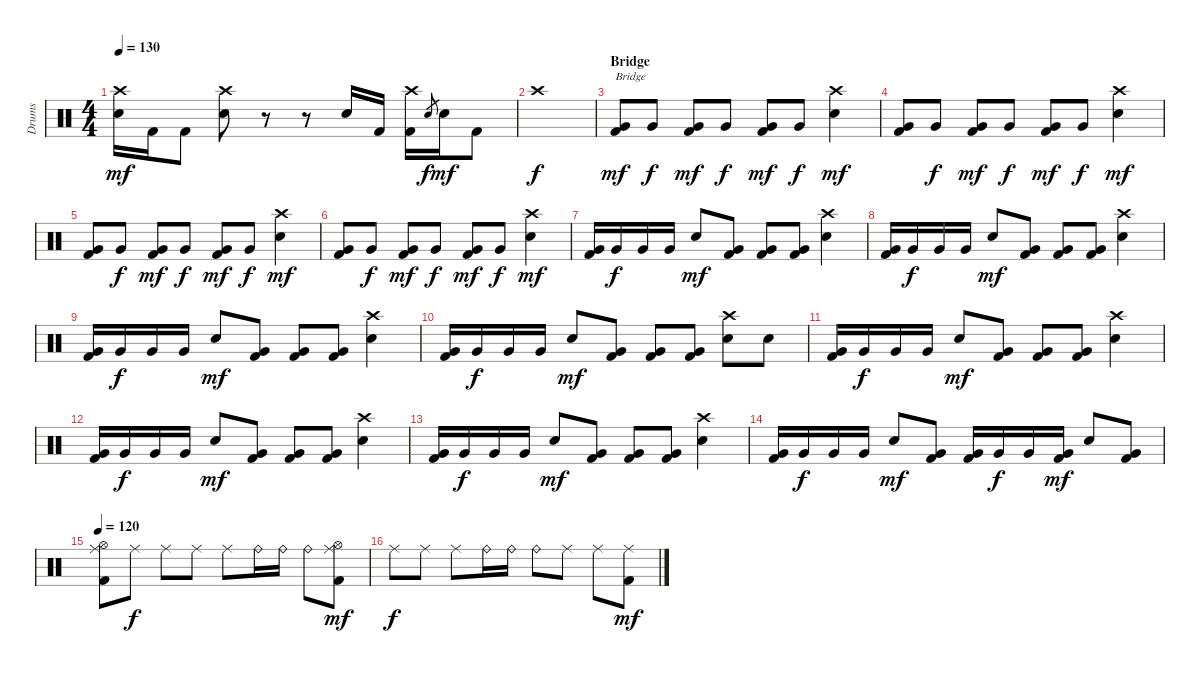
\track ("Drums" "Drums") {instrument percussion}
\staff {score}
\articulation defaults
\ts (4 4)
\tempo 130
\clef neutral
\ks c
("Crash high (hit)" "Electric Snare (hit)").16{dy mf} "Kick (hit) 2".16 "Kick (hit) 2".8 ("Crash high (hit)" "Electric Snare (hit)").8 r.8 r.8 "Electric Snare (hit)".16 "Kick (hit) 2".16 ("Crash high (hit)" "Kick (hit) 2").16 "Electric Snare (hit)".8{gr dy f} "Electric Snare (hit)".16{dy mf} "Kick (hit) 2".8 |
"Crash high (hit)".1{dy f} |
\section ("" "Bridge")
("Very Low Tom (hit)" "Kick (hit) 2").8{txt "Bridge" dy mf} "Very Low Tom (hit)".8{dy f} ("Very Low Tom (hit)" "Kick (hit) 2").8{dy mf} "Very Low Tom (hit)".8{dy f} ("Very Low Tom (hit)" "Kick (hit) 2").8{dy mf} "Very Low Tom (hit)".8{dy f} ("Crash high (hit)" "Electric Snare (hit)").4{dy mf} |
("Very Low Tom (hit)" "Kick (hit) 2").8 "Very Low Tom (hit)".8{dy f} ("Very Low Tom (hit)" "Kick (hit) 2").8{dy mf} "Very Low Tom (hit)".8{dy f} ("Very Low Tom (hit)" "Kick (hit) 2").8{dy mf} "Very Low Tom (hit)".8{dy f} ("Crash high (hit)" "Electric Snare (hit)").4{dy mf} |
("Very Low Tom (hit)" "Kick (hit) 2").8 "Very Low Tom (hit)".8{dy f} ("Very Low Tom (hit)" "Kick (hit) 2").8{dy mf} "Very Low Tom (hit)".8{dy f} ("Very Low Tom (hit)" "Kick (hit) 2").8{dy mf} "Very Low Tom (hit)".8{dy f} ("Crash high (hit)" "Electric Snare (hit)").4{dy mf} |
("Very Low Tom (hit)" "Kick (hit) 2").8 "Very Low Tom (hit)".8{dy f} ("Very Low Tom (hit)" "Kick (hit) 2").8{dy mf} "Very Low Tom (hit)".8{dy f} ("Very Low Tom (hit)" "Kick (hit) 2").8{dy mf} "Very Low Tom (hit)".8{dy f} ("Crash high (hit)" "Electric Snare (hit)").4{dy mf} |
("Very Low Tom (hit)" "Kick (hit) 2").16 "Very Low Tom (hit)".16{dy f} "Very Low Tom (hit)".16 "Very Low Tom (hit)".16 "Electric Snare (hit)".8{dy mf} ("Very Low Tom (hit)" "Kick (hit) 2").8 ("Very Low Tom (hit)" "Kick (hit) 2").8 ("Very Low Tom (hit)" "Kick (hit) 2").8 ("Crash high (hit)" "Electric Snare (hit)").4 |
("Very Low Tom (hit)" "Kick (hit) 2").16 "Very Low Tom (hit)".16{dy f} "Very Low Tom (hit)".16 "Very Low Tom (hit)".16 "Electric Snare (hit)".8{dy mf} ("Very Low Tom (hit)" "Kick (hit) 2").8 ("Very Low Tom (hit)" "Kick (hit) 2").8 ("Very Low Tom (hit)" "Kick (hit) 2").8 ("Crash high (hit)" "Electric Snare (hit)").4 |
("Very Low Tom (hit)" "Kick (hit) 2").16 "Very Low Tom (hit)".16{dy f} "Very Low Tom (hit)".16 "Very Low Tom (hit)".16 "Electric Snare (hit)".8{dy mf} ("Very Low Tom (hit)" "Kick (hit) 2").8 ("Very Low Tom (hit)" "Kick (hit) 2").8 ("Very Low Tom (hit)" "Kick (hit) 2").8 ("Crash high (hit)" "Electric Snare (hit)").4 |
("Very Low Tom (hit)" "Kick (hit) 2").16 "Very Low Tom (hit)".16{dy f} "Very Low Tom (hit)".16 "Very Low Tom (hit)".16 "Electric Snare (hit)".8{dy mf} ("Very Low Tom (hit)" "Kick (hit) 2").8 ("Very Low Tom (hit)" "Kick (hit) 2").8 ("Very Low Tom (hit)" "Kick (hit) 2").8 ("Crash high (hit)" "Electric Snare (hit)").8 "Electric Snare (hit)".8 |
("Very Low Tom (hit)" "Kick (hit) 2").16 "Very Low Tom (hit)".16{dy f} "Very Low Tom (hit)".16 "Very Low Tom (hit)".16 "Electric Snare (hit)".8{dy mf} ("Very Low Tom (hit)" "Kick (hit) 2").8 ("Very Low Tom (hit)" "Kick (hit) 2").8 ("Very Low Tom (hit)" "Kick (hit) 2").8 ("Crash high (hit)" "Electric Snare (hit)").4 |
("Very Low Tom (hit)" "Kick (hit) 2").16 "Very Low Tom (hit)".16{dy f} "Very Low Tom (hit)".16 "Very Low Tom (hit)".16 "Electric Snare (hit)".8{dy mf} ("Very Low Tom (hit)" "Kick (hit) 2").8 ("Very Low Tom (hit)" "Kick (hit) 2").8 ("Very Low Tom (hit)" "Kick (hit) 2").8 ("Crash high (hit)" "Electric Snare (hit)").4 |
("Very Low Tom (hit)" "Kick (hit) 2").16 "Very Low Tom (hit)".16{dy f} "Very Low Tom (hit)".16 "Very Low Tom (hit)".16 "Electric Snare (hit)".8{dy mf} ("Very Low Tom (hit)" "Kick (hit) 2").8 ("Very Low Tom (hit)" "Kick (hit) 2").8 ("Very Low Tom (hit)" "Kick (hit) 2").8 ("Crash high (hit)" "Electric Snare (hit)").4 |
("Very Low Tom (hit)" "Kick (hit) 2").16 "Very Low Tom (hit)".16{dy f} "Very Low Tom (hit)".16 "Very Low Tom (hit)".16 "Electric Snare (hit)".8{dy mf} ("Very Low Tom (hit)" "Kick (hit) 2").8 ("Very Low Tom (hit)" "Kick (hit) 2").16 "Very Low Tom (hit)".16{dy f} "Very Low Tom (hit)".16 ("Very Low Tom (hit)" "Kick (hit) 2").16{dy mf} "Electric Snare (hit)".8 ("Very Low Tom (hit)" "Kick (hit) 2").8 |
\tempo 120
("Ride (middle)" "Hi-Hat (open)" "Kick (hit) 2").8 "Ride (middle)".8{dy f} "Ride (middle)".8 "Ride (middle)".8 "Ride (middle)".8 "Ride (bell)".16 "Ride (bell)".16 "Ride (bell)".8 ("Ride (middle)" "Hi-Hat (open)" "Kick (hit) 2").8{dy mf} |
"Ride (middle)".8{dy f} "Ride (middle)".8 "Ride (middle)".8 "Ride (bell)".16 "Ride (bell)".16 "Ride (bell)".8 "Ride (middle)".8 "Ride (middle)".8 ("Ride (middle)" "Kick (hit) 2").8{dy mf}
